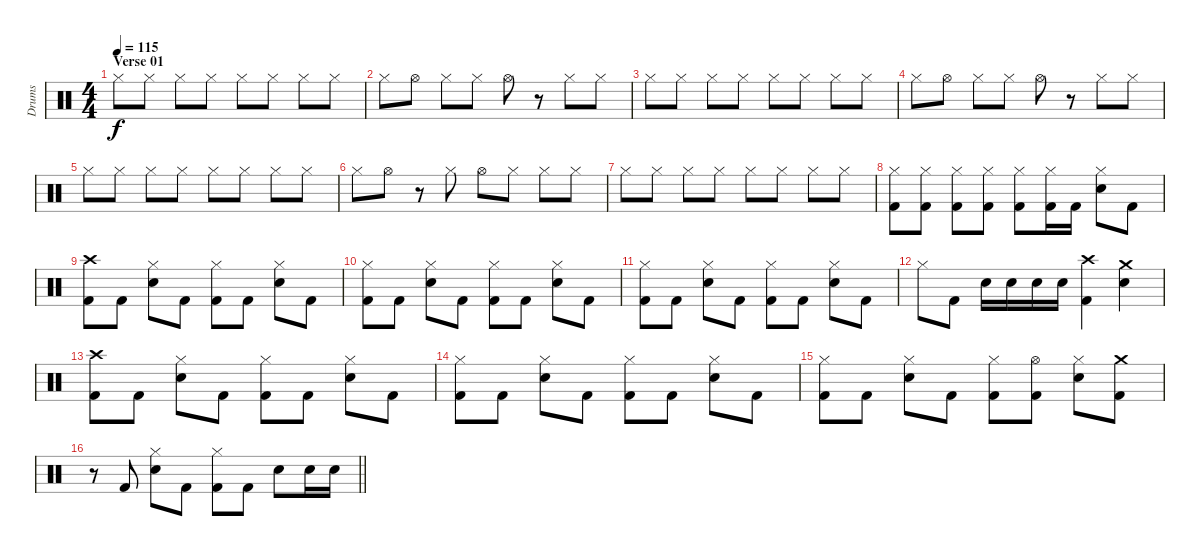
\track ("Drums" "Drums") {instrument percussion}
\staff {score}
\articulation defaults
\ts (4 4)
\section ("" "Verse 01")
\tempo 115
\clef neutral
\ks c "Hi-Hat (closed)".8{dy f} "Hi-Hat (closed)".8 "Hi-Hat (closed)".8 "Hi-Hat (closed)".8 "Hi-Hat (closed)".8 "Hi-Hat (closed)".8 "Hi-Hat (closed)".8 "Hi-Hat (closed)".8
|
"Hi-Hat (closed)".8 "Hi-Hat (open)".8 "Hi-Hat (closed)".8 "Hi-Hat (closed)".8 "Hi-Hat (open)".8 r.8 "Hi-Hat (closed)".8 "Hi-Hat (closed)".8 |
"Hi-Hat (closed)".8 "Hi-Hat (closed)".8 "Hi-Hat (closed)".8 "Hi-Hat (closed)".8 "Hi-Hat (closed)".8 "Hi-Hat (closed)".8 "Hi-Hat (closed)".8 "Hi-Hat (closed)".8 |
"Hi-Hat (closed)".8 "Hi-Hat (open)".8 "Hi-Hat (closed)".8 "Hi-Hat (closed)".8 "Hi-Hat (open)".8 r.8 "Hi-Hat (closed)".8 "Hi-Hat (closed)".8 |
"Hi-Hat (closed)".8 "Hi-Hat (closed)".8 "Hi-Hat (closed)".8 "Hi-Hat (closed)".8 "Hi-Hat (closed)".8 "Hi-Hat (closed)".8 "Hi-Hat (closed)".8 "Hi-Hat (closed)".8 |
"Hi-Hat (closed)".8 "Hi-Hat (open)".8 r.8 "Hi-Hat (closed)".8 "Hi-Hat (open)".8 "Hi-Hat (closed)".8 "Hi-Hat (closed)".8 "Hi-Hat (closed)".8 |
"Hi-Hat (closed)".8 "Hi-Hat (closed)".8 "Hi-Hat (closed)".8 "Hi-Hat (closed)".8 "Hi-Hat (closed)".8 "Hi-Hat (closed)".8 "Hi-Hat (closed)".8 "Hi-Hat (closed)".8 |
("Hi-Hat (closed)" "Kick (hit) 2").8 ("Hi-Hat (closed)" "Kick (hit) 2").8 ("Hi-Hat (closed)" "Kick (hit) 2").8 ("Hi-Hat (closed)" "Kick (hit) 2").8 ("Hi-Hat (closed)" "Kick (hit) 2").8 ("Hi-Hat (closed)" "Kick (hit) 2").16 "Kick (hit) 2".16 ("Hi-Hat (closed)" "Snare (hit) 2").8 "Kick (hit) 2".8 |
("Crash high (hit)" "Kick (hit) 2").8 "Kick (hit) 2".8 ("Hi-Hat (closed)" "Snare (hit) 2").8 "Kick (hit) 2".8 ("Hi-Hat (closed)" "Kick (hit) 2").8 "Kick (hit) 2".8 ("Hi-Hat (closed)" "Snare (hit) 2").8 "Kick (hit) 2".8 |
("Hi-Hat (closed)" "Kick (hit) 2").8 "Kick (hit) 2".8 ("Hi-Hat (closed)" "Snare (hit) 2").8 "Kick (hit) 2".8 ("Hi-Hat (closed)" "Kick (hit) 2").8 "Kick (hit) 2".8 ("Hi-Hat (closed)" "Snare (hit) 2").8 "Kick (hit) 2".8 |
("Hi-Hat (closed)" "Kick (hit) 2").8 "Kick (hit) 2".8 ("Hi-Hat (closed)" "Snare (hit) 2").8 "Kick (hit) 2".8 ("Hi-Hat (closed)" "Kick (hit) 2").8 "Kick (hit) 2".8 ("Hi-Hat (closed)" "Snare (hit) 2").8 "Kick (hit) 2".8 |
"Hi-Hat (closed)".8 "Kick (hit) 2".8 "Snare (hit) 2".16 "Snare (hit) 2".16 "Snare (hit) 2".16 "Snare (hit) 2".16 ("Crash high (hit)" "Kick (hit) 2").4 ("Crash medium (hit)" "Snare (hit) 2").4 |
("Crash high (hit)" "Kick (hit) 2").8 "Kick (hit) 2".8 ("Hi-Hat (closed)" "Snare (hit) 2").8 "Kick (hit) 2".8 ("Hi-Hat (closed)" "Kick (hit) 2").8 "Kick (hit) 2".8 ("Hi-Hat (closed)" "Snare (hit) 2").8 "Kick (hit) 2".8 |
("Hi-Hat (closed)" "Kick (hit) 2").8 "Kick (hit) 2".8 ("Hi-Hat (closed)" "Snare (hit) 2").8 "Kick (hit) 2".8 ("Hi-Hat (closed)" "Kick (hit) 2").8 "Kick (hit) 2".8 ("Hi-Hat (closed)" "Snare (hit) 2").8 "Kick (hit) 2".8 |
("Hi-Hat (closed)" "Kick (hit) 2").8 "Kick (hit) 2".8 ("Hi-Hat (closed)" "Snare (hit) 2").8 "Kick (hit) 2".8 ("Hi-Hat (closed)" "Kick (hit) 2").8 ("Hi-Hat (open)" "Kick (hit) 2").8 ("Hi-Hat (closed)" "Snare (hit) 2").8 ("Crash medium (hit)" "Kick (hit) 2").8 |
\barLineRight lightlight
r.8 "Kick (hit) 2".8 ("Hi-Hat (closed)" "Snare (hit) 2").8 "Kick (hit) 2".8 ("Hi-Hat (closed)" "Kick (hit) 2").8 "Kick (hit) 2".8 "Snare (hit) 2".8 "Snare (hit) 2".16 "Snare (hit) 2".16
